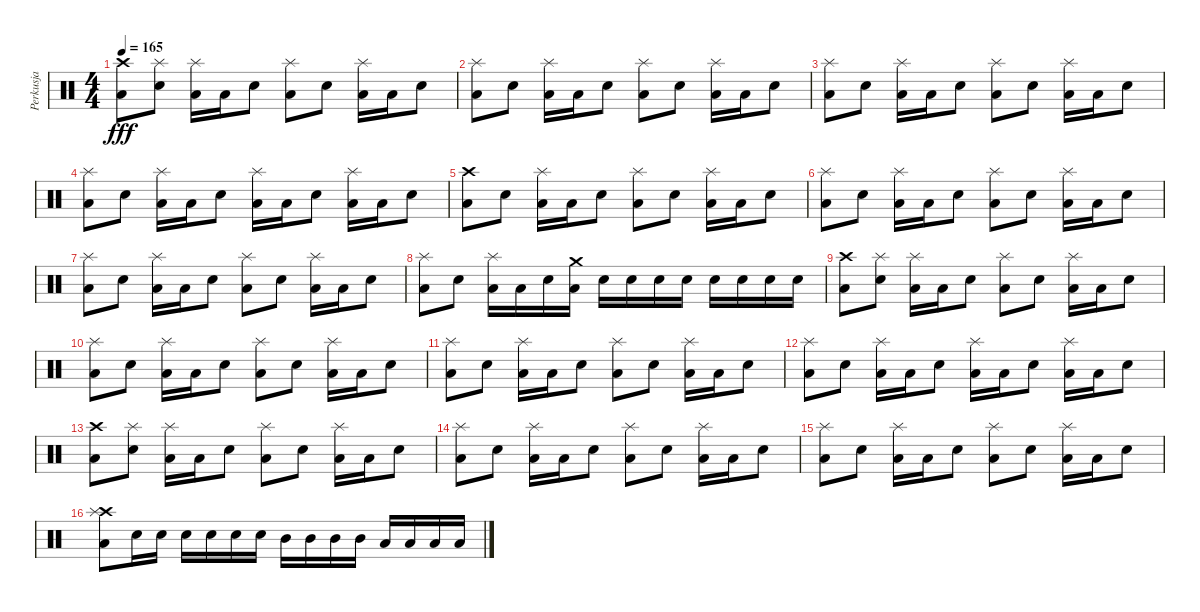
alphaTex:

\track ("Perkusja" "Perkusja") {instrument percussion}
\staff {score}
\articulation defaults
\ts (4 4)
\tempo 165
\clef neutral
\ks c
("Crash high (hit)" "Low Tom (hit)").8{dy fff} ("Splash (hit)" "Electric Snare (hit)").8 ("Splash (hit)" "Low Tom (hit)").16 "Low Tom (hit)".16 "Electric Snare (hit)".8 ("Splash (hit)" "Low Tom (hit)").8 "Electric Snare (hit)".8 ("Splash (hit)" "Low Tom (hit)").16 "Low Tom (hit)".16 "Electric Snare (hit)".8 |
("Splash (hit)" "Low Tom (hit)").8 "Electric Snare (hit)".8 ("Splash (hit)" "Low Tom (hit)").16 "Low Tom (hit)".16 "Electric Snare (hit)".8 ("Splash (hit)" "Low Tom (hit)").8 "Electric Snare (hit)".8 ("Splash (hit)" "Low Tom (hit)").16 "Low Tom (hit)".16 "Electric Snare (hit)".8 |
("Splash (hit)" "Low Tom (hit)").8 "Electric Snare (hit)".8 ("Splash (hit)" "Low Tom (hit)").16 "Low Tom (hit)".16 "Electric Snare (hit)".8 ("Splash (hit)" "Low Tom (hit)").8 "Electric Snare (hit)".8 ("Splash (hit)" "Low Tom (hit)").16 "Low Tom (hit)".16 "Electric Snare (hit)".8 |
("Splash (hit)" "Low Tom (hit)").8 "Electric Snare (hit)".8 ("Splash (hit)" "Low Tom (hit)").16 "Low Tom (hit)".16 "Electric Snare (hit)".8 ("Splash (hit)" "Low Tom (hit)").16 "Low Tom (hit)".16 "Electric Snare (hit)".8 ("Splash (hit)" "Low Tom (hit)").16 "Low Tom (hit)".16 "Electric Snare (hit)".8 |
("Crash high (hit)" "Low Tom (hit)").8 "Electric Snare (hit)".8 ("Splash (hit)" "Low Tom (hit)").16 "Low Tom (hit)".16 "Electric Snare (hit)".8 ("Splash (hit)" "Low Tom (hit)").8 "Electric Snare (hit)".8 ("Splash (hit)" "Low Tom (hit)").16 "Low Tom (hit)".16 "Electric Snare (hit)".8 |
("Splash (hit)" "Low Tom (hit)").8 "Electric Snare (hit)".8 ("Splash (hit)" "Low Tom (hit)").16 "Low Tom (hit)".16 "Electric Snare (hit)".8 ("Splash (hit)" "Low Tom (hit)").8 "Electric Snare (hit)".8 ("Splash (hit)" "Low Tom (hit)").16 "Low Tom (hit)".16 "Electric Snare (hit)".8 |
("Splash (hit)" "Low Tom (hit)").8 "Electric Snare (hit)".8 ("Splash (hit)" "Low Tom (hit)").16 "Low Tom (hit)".16 "Electric Snare (hit)".8 ("Splash (hit)" "Low Tom (hit)").8 "Electric Snare (hit)".8 ("Splash (hit)" "Low Tom (hit)").16 "Low Tom (hit)".16 "Electric Snare (hit)".8 |
("Splash (hit)" "Low Tom (hit)").8 "Electric Snare (hit)".8 ("Splash (hit)" "Low Tom (hit)").16 "Low Tom (hit)".16 "Electric Snare (hit)".16 ("Crash medium (hit)" "Low Tom (hit)").16 "Electric Snare (hit)".16 "Electric Snare (hit)".16 "Electric Snare (hit)".16 "Electric Snare (hit)".16 "Electric Snare (hit)".16 "Electric Snare (hit)".16 "Electric Snare (hit)".16 "Electric Snare (hit)".16 |
("Crash high (hit)" "Low Tom (hit)").8 ("Splash (hit)" "Electric Snare (hit)").8 ("Splash (hit)" "Low Tom (hit)").16 "Low Tom (hit)".16 "Electric Snare (hit)".8 ("Splash (hit)" "Low Tom (hit)").8 "Electric Snare (hit)".8 ("Splash (hit)" "Low Tom (hit)").16 "Low Tom (hit)".16 "Electric Snare (hit)".8 |
("Splash (hit)" "Low Tom (hit)").8 "Electric Snare (hit)".8 ("Splash (hit)" "Low Tom (hit)").16 "Low Tom (hit)".16 "Electric Snare (hit)".8 ("Splash (hit)" "Low Tom (hit)").8 "Electric Snare (hit)".8 ("Splash (hit)" "Low Tom (hit)").16 "Low Tom (hit)".16 "Electric Snare (hit)".8 |
("Splash (hit)" "Low Tom (hit)").8 "Electric Snare (hit)".8 ("Splash (hit)" "Low Tom (hit)").16 "Low Tom (hit)".16 "Electric Snare (hit)".8 ("Splash (hit)" "Low Tom (hit)").8 "Electric Snare (hit)".8 ("Splash (hit)" "Low Tom (hit)").16 "Low Tom (hit)".16 "Electric Snare (hit)".8 |
("Splash (hit)" "Low Tom (hit)").8 "Electric Snare (hit)".8 ("Splash (hit)" "Low Tom (hit)").16 "Low Tom (hit)".16 "Electric Snare (hit)".8 ("Splash (hit)" "Low Tom (hit)").16 "Low Tom (hit)".16 "Electric Snare (hit)".8 ("Splash (hit)" "Low Tom (hit)").16 "Low Tom (hit)".16 "Electric Snare (hit)".8 |
("Crash high (hit)" "Low Tom (hit)").8 ("Splash (hit)" "Electric Snare (hit)").8 ("Splash (hit)" "Low Tom (hit)").16 "Low Tom (hit)".16 "Electric Snare (hit)".8 ("Splash (hit)" "Low Tom (hit)").8 "Electric Snare (hit)".8 ("Splash (hit)" "Low Tom (hit)").16 "Low Tom (hit)".16 "Electric Snare (hit)".8 |
("Splash (hit)" "Low Tom (hit)").8 "Electric Snare (hit)".8 ("Splash (hit)" "Low Tom (hit)").16 "Low Tom (hit)".16 "Electric Snare (hit)".8 ("Splash (hit)" "Low Tom (hit)").8 "Electric Snare (hit)".8 ("Splash (hit)" "Low Tom (hit)").16 "Low Tom (hit)".16 "Electric Snare (hit)".8 |
("Splash (hit)" "Low Tom (hit)").8 "Electric Snare (hit)".8 ("Splash (hit)" "Low Tom (hit)").16 "Low Tom (hit)".16 "Electric Snare (hit)".8 ("Splash (hit)" "Low Tom (hit)").8 "Electric Snare (hit)".8 ("Splash (hit)" "Low Tom (hit)").16 "Low Tom (hit)".16 "Electric Snare (hit)".8 |
("Crash high (hit)" "Splash (hit)" "Low Tom (hit)").8 "Electric Snare (hit)".16 "Electric Snare (hit)".16 "Electric Snare (hit)".16 "Electric Snare (hit)".16 "Electric Snare (hit)".16 "Electric Snare (hit)".16 "Mid Tom (hit)".16 "Mid Tom (hit)".16 "Mid Tom (hit)".16 "Mid Tom (hit)".16 "Low Tom (hit)".16 "Low Tom (hit)".16 "Low Tom (hit)".16 "Low Tom (hit)".16
